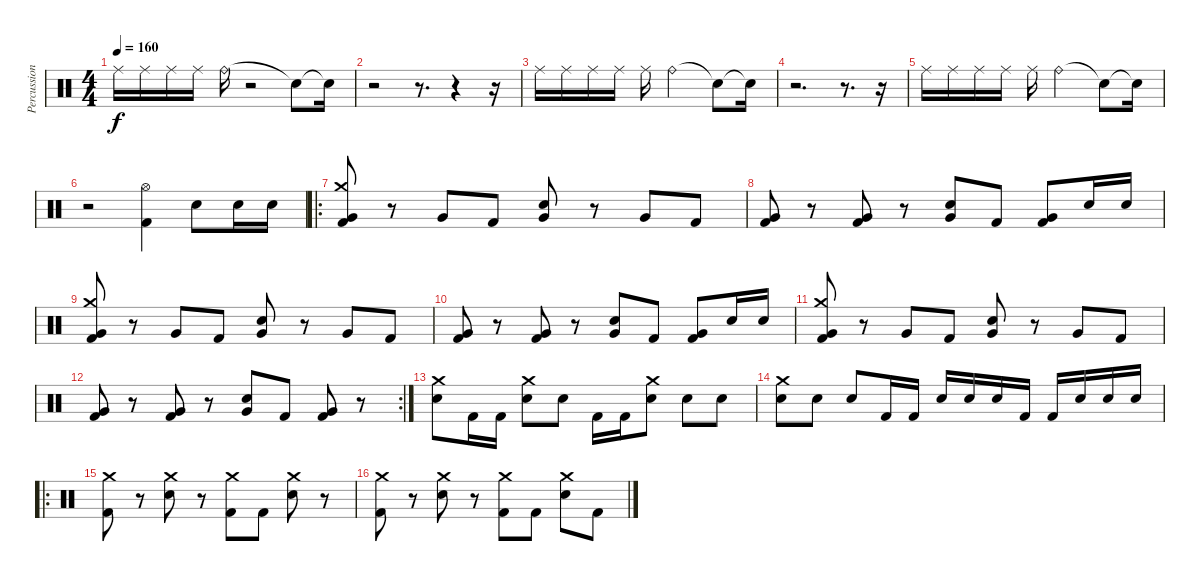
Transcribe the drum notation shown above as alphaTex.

\track ("Percussion" "Percussion") {instrument percussion}
\staff {score}
\articulation defaults
\ts (4 4)
\tempo 160
\clef neutral
\ks c "Ride (middle)".16{dy f} "Ride (middle)".16 "Ride (middle)".16 "Ride (middle)".16 "Ride (bell)".16
r.2 "Snare (hit)"{t}.8 "Snare (hit)"{t}.16 |
r.2 r.8{d} r.4 r.16 |
"Ride (middle)".16 "Ride (middle)".16 "Ride (middle)".16 "Ride (middle)".16 "Ride (middle)".16 "Ride (bell)".2 "Snare (hit)"{t}.8 "Snare (hit)"{t}.16 |
r.2{d} r.8{d} r.16 |
"Ride (middle)".16 "Ride (middle)".16 "Ride (middle)".16 "Ride (middle)".16 "Ride (middle)".16 "Ride (bell)".2 "Snare (hit)"{t}.8 "Snare (hit)"{t}.16 |
r.2 ("Hi-Hat (open)" "Kick (hit) 2").4 "Electric Snare (hit)".8 "Electric Snare (hit)".16 "Electric Snare (hit)".16 |
\ro
("Crash medium (hit)" "Very Low Tom (hit)" "Kick (hit) 2").8 r.8 "Very Low Tom (hit)".8 "Kick (hit) 2".8 ("Very Low Tom (hit)" "Electric Snare (hit)").8 r.8 "Very Low Tom (hit)".8 "Kick (hit) 2".8 |
("Very Low Tom (hit)" "Kick (hit) 2").8 r.8 ("Very Low Tom (hit)" "Kick (hit) 2").8 r.8 ("Very Low Tom (hit)" "Electric Snare (hit)").8 "Kick (hit) 2".8 ("Very Low Tom (hit)" "Kick (hit) 2").8 "Electric Snare (hit)".16 "Electric Snare (hit)".16 |
("Crash medium (hit)" "Very Low Tom (hit)" "Kick (hit) 2").8 r.8 "Very Low Tom (hit)".8 "Kick (hit) 2".8 ("Very Low Tom (hit)" "Electric Snare (hit)").8 r.8 "Very Low Tom (hit)".8 "Kick (hit) 2".8 |
("Very Low Tom (hit)" "Kick (hit) 2").8 r.8 ("Very Low Tom (hit)" "Kick (hit) 2").8 r.8 ("Very Low Tom (hit)" "Electric Snare (hit)").8 "Kick (hit) 2".8 ("Very Low Tom (hit)" "Kick (hit) 2").8 "Electric Snare (hit)".16 "Electric Snare (hit)".16 |
("Crash medium (hit)" "Very Low Tom (hit)" "Kick (hit) 2").8 r.8 "Very Low Tom (hit)".8 "Kick (hit) 2".8 ("Very Low Tom (hit)" "Electric Snare (hit)").8 r.8 "Very Low Tom (hit)".8 "Kick (hit) 2".8 |
\rc 2
("Very Low Tom (hit)" "Kick (hit) 2").8 r.8 ("Very Low Tom (hit)" "Kick (hit) 2").8 r.8 ("Very Low Tom (hit)" "Electric Snare (hit)").8 "Kick (hit) 2".8 ("Very Low Tom (hit)" "Kick (hit) 2").8 r.8 |
("Crash medium (hit)" "Electric Snare (hit)").8 "Kick (hit) 2".16 "Kick (hit) 2".16 ("Crash medium (hit)" "Electric Snare (hit)").8 "Electric Snare (hit)".8 "Kick (hit) 2".16 "Kick (hit) 2".16 ("Crash medium (hit)" "Electric Snare (hit)").8 "Electric Snare (hit)".8 "Electric Snare (hit)".8 |
("Crash medium (hit)" "Electric Snare (hit)").8 "Electric Snare (hit)".8 "Electric Snare (hit)".8 "Kick (hit) 2".16 "Kick (hit) 2".16 "Electric Snare (hit)".16 "Electric Snare (hit)".16 "Electric Snare (hit)".16 "Kick (hit) 2".16 "Kick (hit) 2".16 "Electric Snare (hit)".16 "Electric Snare (hit)".16 "Electric Snare (hit)".16 |
\ro
("Crash medium (hit)" "Kick (hit) 2").8 r.8 ("Crash medium (hit)" "Electric Snare (hit)").8 r.8 ("Crash medium (hit)" "Kick (hit) 2").8 "Kick (hit) 2".8 ("Crash medium (hit)" "Electric Snare (hit)").8 r.8 |
("Crash medium (hit)" "Kick (hit) 2").8 r.8 ("Crash medium (hit)" "Electric Snare (hit)").8 r.8 ("Crash medium (hit)" "Kick (hit) 2").8 "Kick (hit) 2".8 ("Crash medium (hit)" "Electric Snare (hit)").8 "Kick (hit) 2".8
